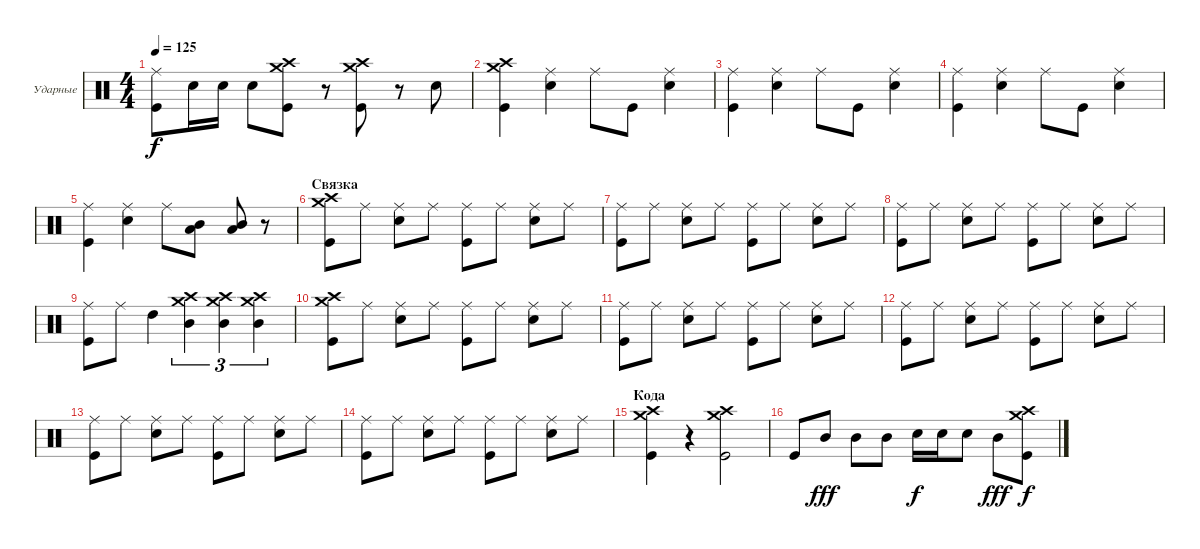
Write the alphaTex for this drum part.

\bracketExtendMode groupsimilarinstruments
\firstSystemTrackNameOrientation horizontal
\otherSystemsTrackNameOrientation horizontal
\track ("Максим Удалов" "Ударные") {instrument percussion}
\staff {score}
\articulation defaults
\ts (4 4)
\tempo 125
\clef neutral
\ks c
("Kick (hit)" "Ride (middle)").8{dy f} "Snare (hit) 2".16 "Snare (hit) 2".16 "Snare (hit) 2".8 ("Kick (hit)" "Crash medium (hit)" "Crash high (hit)").8 r.8 ("Kick (hit)" "Crash high (hit)" "Crash medium (hit)").8 r.8 "Snare (hit) 2".8 |
("Kick (hit)" "Crash medium (hit)" "Crash high (hit)").4 ("Snare (hit) 2" "Ride (middle)").4 "Ride (middle)".8 "Kick (hit)".8 ("Snare (hit) 2" "Ride (middle)").4 |
("Kick (hit)" "Ride (middle)").4 ("Snare (hit) 2" "Ride (middle)").4 "Ride (middle)".8 "Kick (hit)".8 ("Snare (hit) 2" "Ride (middle)").4 |
("Kick (hit)" "Ride (middle)").4 ("Snare (hit) 2" "Ride (middle)").4 "Ride (middle)".8 "Kick (hit)".8 ("Snare (hit) 2" "Ride (middle)").4 |
("Kick (hit)" "Ride (middle)").4 ("Snare (hit) 2" "Ride (middle)").4 "Ride (middle)".8 ("Mid Tom (hit)" "Low Tom (hit)").8 ("Mid Tom (hit)" "Low Tom (hit)").8 r.8 |
\section ("" "Связка")
("Kick (hit)" "Crash medium (hit)" "Crash high (hit)").8 "Ride (middle)".8 ("Snare (hit) 2" "Ride (middle)").8 "Ride (middle)".8 ("Kick (hit)" "Ride (middle)").8 "Ride (middle)".8 ("Snare (hit) 2" "Ride (middle)").8 "Ride (middle)".8 |
("Kick (hit)" "Ride (middle)").8 "Ride (middle)".8 ("Snare (hit) 2" "Ride (middle)").8 "Ride (middle)".8 ("Kick (hit)" "Ride (middle)").8 "Ride (middle)".8 ("Snare (hit) 2" "Ride (middle)").8 "Ride (middle)".8 |
("Kick (hit)" "Ride (middle)").8 "Ride (middle)".8 ("Snare (hit) 2" "Ride (middle)").8 "Ride (middle)".8 ("Kick (hit)" "Ride (middle)").8 "Ride (middle)".8 ("Snare (hit) 2" "Ride (middle)").8 "Ride (middle)".8 |
("Kick (hit)" "Ride (middle)").8 "Ride (middle)".8 "High Tom (hit)".4 ("Crash medium (hit)" "Crash high (hit)" "Mid Tom (hit)").4{tu (3 2)} ("Crash medium (hit)" "Crash high (hit)" "Mid Tom (hit)").4{tu (3 2)} ("Crash medium (hit)" "Crash high (hit)" "Mid Tom (hit)").4{tu (3 2)} |
("Kick (hit)" "Crash medium (hit)" "Crash high (hit)").8 "Ride (middle)".8 ("Snare (hit) 2" "Ride (middle)").8 "Ride (middle)".8 ("Kick (hit)" "Ride (middle)").8 "Ride (middle)".8 ("Snare (hit) 2" "Ride (middle)").8 "Ride (middle)".8 |
("Kick (hit)" "Ride (middle)").8 "Ride (middle)".8 ("Snare (hit) 2" "Ride (middle)").8 "Ride (middle)".8 ("Kick (hit)" "Ride (middle)").8 "Ride (middle)".8 ("Snare (hit) 2" "Ride (middle)").8 "Ride (middle)".8 |
("Kick (hit)" "Ride (middle)").8 "Ride (middle)".8 ("Snare (hit) 2" "Ride (middle)").8 "Ride (middle)".8 ("Kick (hit)" "Ride (middle)").8 "Ride (middle)".8 ("Snare (hit) 2" "Ride (middle)").8 "Ride (middle)".8 |
("Kick (hit)" "Ride (middle)").8 "Ride (middle)".8 ("Snare (hit) 2" "Ride (middle)").8 "Ride (middle)".8 ("Kick (hit)" "Ride (middle)").8 "Ride (middle)".8 ("Snare (hit) 2" "Ride (middle)").8 "Ride (middle)".8 |
("Kick (hit)" "Ride (middle)").8 "Ride (middle)".8 ("Snare (hit) 2" "Ride (middle)").8 "Ride (middle)".8 ("Kick (hit)" "Ride (middle)").8 "Ride (middle)".8 ("Snare (hit) 2" "Ride (middle)").8 "Ride (middle)".8 |
\section ("" "Кода")
("Kick (hit)" "Crash medium (hit)" "Crash high (hit)").4 r.4 ("Kick (hit)" "Crash medium (hit)" "Crash high (hit)").2 |
"Kick (hit)".8 "Mid Tom (hit)".8{dy fff} "Mid Tom (hit)".8 "Mid Tom (hit)".8 "Snare (hit) 2".16{dy f} "Snare (hit) 2".16 "Snare (hit) 2".8 "Mid Tom (hit)".8{dy fff} ("Kick (hit)" "Crash medium (hit)" "Crash high (hit)").8{dy f}
